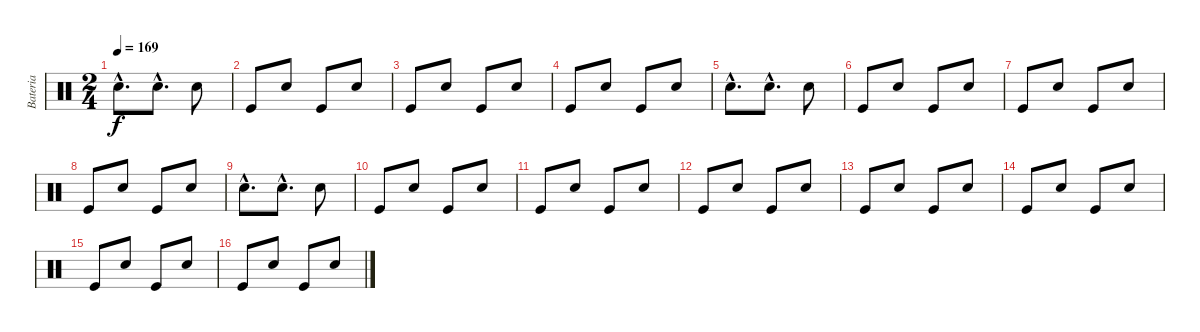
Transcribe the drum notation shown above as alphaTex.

\track ("Bateria" "Bateria") {instrument percussion}
\staff {score}
\articulation defaults
\ts (2 4)
\tempo 169
\clef neutral
\ks c "Snare (hit) 2"{hac}.8{d dy f} "Snare (hit) 2"{hac}.8{d} "Snare (hit) 2".8
|
"Kick (hit)".8 "Snare (hit) 2".8 "Kick (hit)".8 "Snare (hit) 2".8 |
"Kick (hit)".8 "Snare (hit) 2".8 "Kick (hit)".8 "Snare (hit) 2".8 |
"Kick (hit)".8 "Snare (hit) 2".8 "Kick (hit)".8 "Snare (hit) 2".8 |
"Snare (hit) 2"{hac}.8{d} "Snare (hit) 2"{hac}.8{d} "Snare (hit) 2".8 |
"Kick (hit)".8 "Snare (hit) 2".8 "Kick (hit)".8 "Snare (hit) 2".8 |
"Kick (hit)".8 "Snare (hit) 2".8 "Kick (hit)".8 "Snare (hit) 2".8 |
"Kick (hit)".8 "Snare (hit) 2".8 "Kick (hit)".8 "Snare (hit) 2".8 |
"Snare (hit) 2"{hac}.8{d} "Snare (hit) 2"{hac}.8{d} "Snare (hit) 2".8 |
"Kick (hit)".8 "Snare (hit) 2".8 "Kick (hit)".8 "Snare (hit) 2".8 |
"Kick (hit)".8 "Snare (hit) 2".8 "Kick (hit)".8 "Snare (hit) 2".8 |
"Kick (hit)".8 "Snare (hit) 2".8 "Kick (hit)".8 "Snare (hit) 2".8 |
"Kick (hit)".8 "Snare (hit) 2".8 "Kick (hit)".8 "Snare (hit) 2".8 |
"Kick (hit)".8 "Snare (hit) 2".8 "Kick (hit)".8 "Snare (hit) 2".8 |
"Kick (hit)".8 "Snare (hit) 2".8 "Kick (hit)".8 "Snare (hit) 2".8 |
"Kick (hit)".8 "Snare (hit) 2".8 "Kick (hit)".8 "Snare (hit) 2".8
